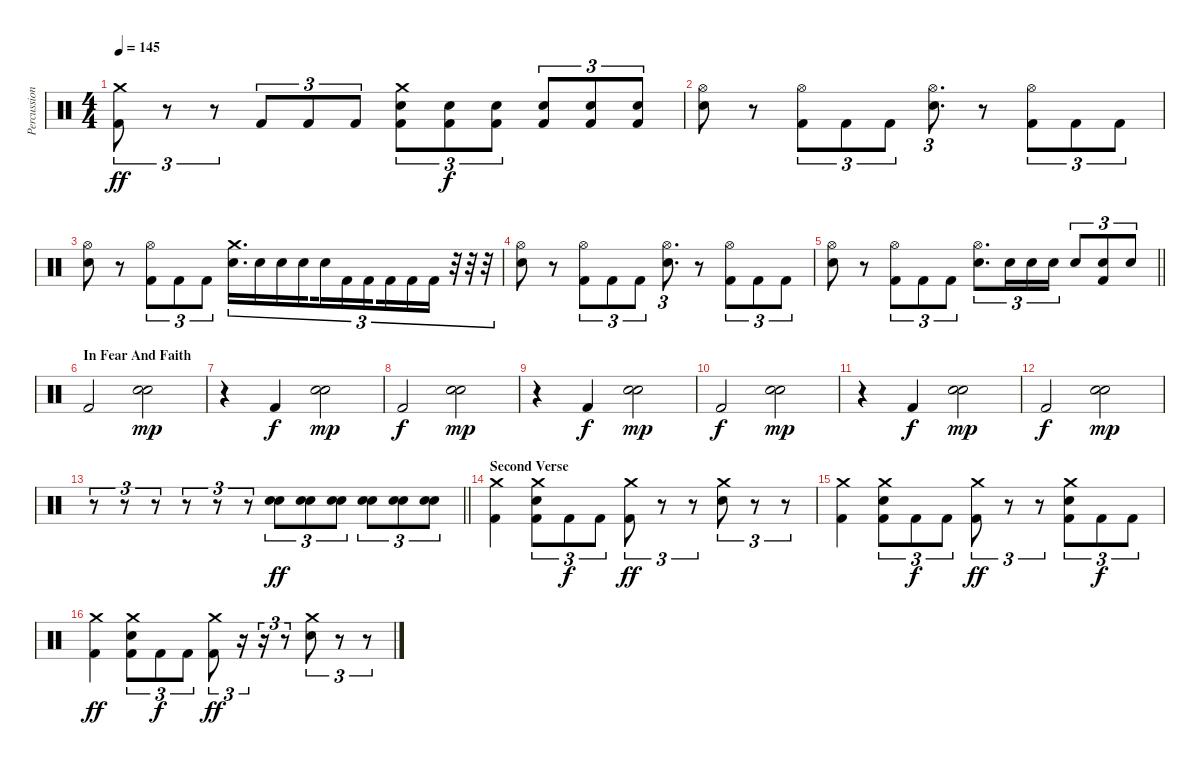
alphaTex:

\track ("Percussion" "Percussion") {instrument percussion}
\staff {score}
\articulation defaults
\ts (4 4)
\tempo 145
\clef neutral
\ks c
("Crash medium (hit)" "Kick (hit) 2").8{tu (3 2) dy ff} r.8{tu (3 2)} r.8{tu (3 2)} "Kick (hit) 2".8{tu (3 2)} "Kick (hit) 2".8{tu (3 2)} "Kick (hit) 2".8{tu (3 2)} ("Electric Snare (hit)" "Crash medium (hit)" "Kick (hit) 2").8{tu (3 2)} ("Electric Snare (hit)" "Kick (hit) 2").8{tu (3 2) dy f} ("Electric Snare (hit)" "Kick (hit) 2").8{tu (3 2)} ("Electric Snare (hit)" "Kick (hit) 2").8{tu (3 2)} ("Electric Snare (hit)" "Kick (hit) 2").8{tu (3 2)} ("Electric Snare (hit)" "Kick (hit) 2").8{tu (3 2)} |
("Electric Snare (hit)" "Hi-Hat (open)").8 r.8 ("Hi-Hat (open)" "Kick (hit) 2").8{tu (3 2)} "Kick (hit) 2".8{tu (3 2)} "Kick (hit) 2".8{tu (3 2)} ("Hi-Hat (open)" "Electric Snare (hit)").8{d tu (3 2)} r.8 ("Hi-Hat (open)" "Kick (hit) 2").8{tu (3 2)} "Kick (hit) 2".8{tu (3 2)} "Kick (hit) 2".8{tu (3 2)} |
("Electric Snare (hit)" "Hi-Hat (open)").8 r.8 ("Hi-Hat (open)" "Kick (hit) 2").8{tu (3 2)} "Kick (hit) 2".8{tu (3 2)} "Kick (hit) 2".8{tu (3 2)} ("Crash medium (hit)" "Electric Snare (hit)").16{d tu (3 2)} "Electric Snare (hit)".16{tu (3 2)} "Electric Snare (hit)".16{tu (3 2)} "Electric Snare (hit)".16{tu (3 2) beam splitsecondary} "Electric Snare (hit)".16{tu (3 2)} "Kick (hit) 2".16{tu (3 2)} "Kick (hit) 2".16{tu (3 2) beam splitsecondary} "Kick (hit) 2".16{tu (3 2)} "Kick (hit) 2".16{tu (3 2)} "Kick (hit) 2".16{tu (3 2)} r.32{tu (3 2)} r.32{tu (3 2)} r.32{tu (3 2)} |
("Electric Snare (hit)" "Hi-Hat (open)").8 r.8 ("Hi-Hat (open)" "Kick (hit) 2").8{tu (3 2)} "Kick (hit) 2".8{tu (3 2)} "Kick (hit) 2".8{tu (3 2)} ("Hi-Hat (open)" "Electric Snare (hit)").8{d tu (3 2)} r.8 ("Hi-Hat (open)" "Kick (hit) 2").8{tu (3 2)} "Kick (hit) 2".8{tu (3 2)} "Kick (hit) 2".8{tu (3 2)} |
\barLineRight lightlight
("Electric Snare (hit)" "Hi-Hat (open)").8 r.8 ("Hi-Hat (open)" "Kick (hit) 2").8{tu (3 2)} "Kick (hit) 2".8{tu (3 2)} "Kick (hit) 2".8{tu (3 2)} ("Hi-Hat (open)" "Electric Snare (hit)").8{d tu (3 2)} "Electric Snare (hit)".16{tu (3 2)} "Electric Snare (hit)".16{tu (3 2)} "Electric Snare (hit)".16{tu (3 2)} "Electric Snare (hit)".8{tu (3 2)} ("Electric Snare (hit)" "Kick (hit) 2").8{tu (3 2)} "Electric Snare (hit)".8{tu (3 2)} |
\section ("" "In Fear And Faith")
"Kick (hit) 2".2 ("Snare (hit) 2" "Electric Snare (hit)").2{dy mp} |
r.4 "Kick (hit) 2".4{dy f} ("Electric Snare (hit)" "Snare (hit) 2").2{dy mp} |
"Kick (hit) 2".2{dy f} ("Snare (hit) 2" "Electric Snare (hit)").2{dy mp} |
r.4 "Kick (hit) 2".4{dy f} ("Electric Snare (hit)" "Snare (hit) 2").2{dy mp} |
"Kick (hit) 2".2{dy f} ("Snare (hit) 2" "Electric Snare (hit)").2{dy mp} |
r.4 "Kick (hit) 2".4{dy f} ("Electric Snare (hit)" "Snare (hit) 2").2{dy mp} |
"Kick (hit) 2".2{dy f} ("Snare (hit) 2" "Electric Snare (hit)").2{dy mp} |
\barLineRight lightlight
r.8{tu (3 2)} r.8{tu (3 2)} r.8{tu (3 2)} r.8{tu (3 2)} r.8{tu (3 2)} r.8{tu (3 2)} ("Electric Snare (hit)" "Snare (hit) 2").8{tu (3 2) dy ff} ("Electric Snare (hit)" "Snare (hit) 2").8{tu (3 2)} ("Electric Snare (hit)" "Snare (hit) 2").8{tu (3 2)} ("Electric Snare (hit)" "Snare (hit) 2").8{tu (3 2)} ("Electric Snare (hit)" "Snare (hit) 2").8{tu (3 2)} ("Electric Snare (hit)" "Snare (hit) 2").8{tu (3 2)} |
\section ("" "Second Verse")
("Crash medium (hit)" "Kick (hit) 2").4 ("Electric Snare (hit)" "Crash medium (hit)" "Kick (hit) 2").8{tu (3 2)} "Kick (hit) 2".8{tu (3 2) dy f} "Kick (hit) 2".8{tu (3 2)} ("Crash medium (hit)" "Kick (hit) 2").8{tu (3 2) dy ff} r.8{tu (3 2)} r.8{tu (3 2)} ("Electric Snare (hit)" "Crash medium (hit)").8{tu (3 2)} r.8{tu (3 2)} r.8{tu (3 2)} |
("Crash medium (hit)" "Kick (hit) 2").4 ("Electric Snare (hit)" "Crash medium (hit)" "Kick (hit) 2").8{tu (3 2)} "Kick (hit) 2".8{tu (3 2) dy f} "Kick (hit) 2".8{tu (3 2)} ("Crash medium (hit)" "Kick (hit) 2").8{tu (3 2) dy ff} r.8{tu (3 2)} r.8{tu (3 2)} ("Electric Snare (hit)" "Crash medium (hit)" "Kick (hit) 2").8{tu (3 2)} "Kick (hit) 2".8{tu (3 2) dy f} "Kick (hit) 2".8{tu (3 2)} |
("Crash medium (hit)" "Kick (hit) 2").4{dy ff} ("Electric Snare (hit)" "Crash medium (hit)" "Kick (hit) 2").8{tu (3 2)} "Kick (hit) 2".8{tu (3 2) dy f} "Kick (hit) 2".8{tu (3 2)} ("Crash medium (hit)" "Kick (hit) 2").8{tu (3 2) dy ff} r.16{tu (3 2)} r.16{tu (3 2)} r.8{tu (3 2)} ("Electric Snare (hit)" "Crash medium (hit)").8{tu (3 2)} r.8{tu (3 2)} r.8{tu (3 2)}
